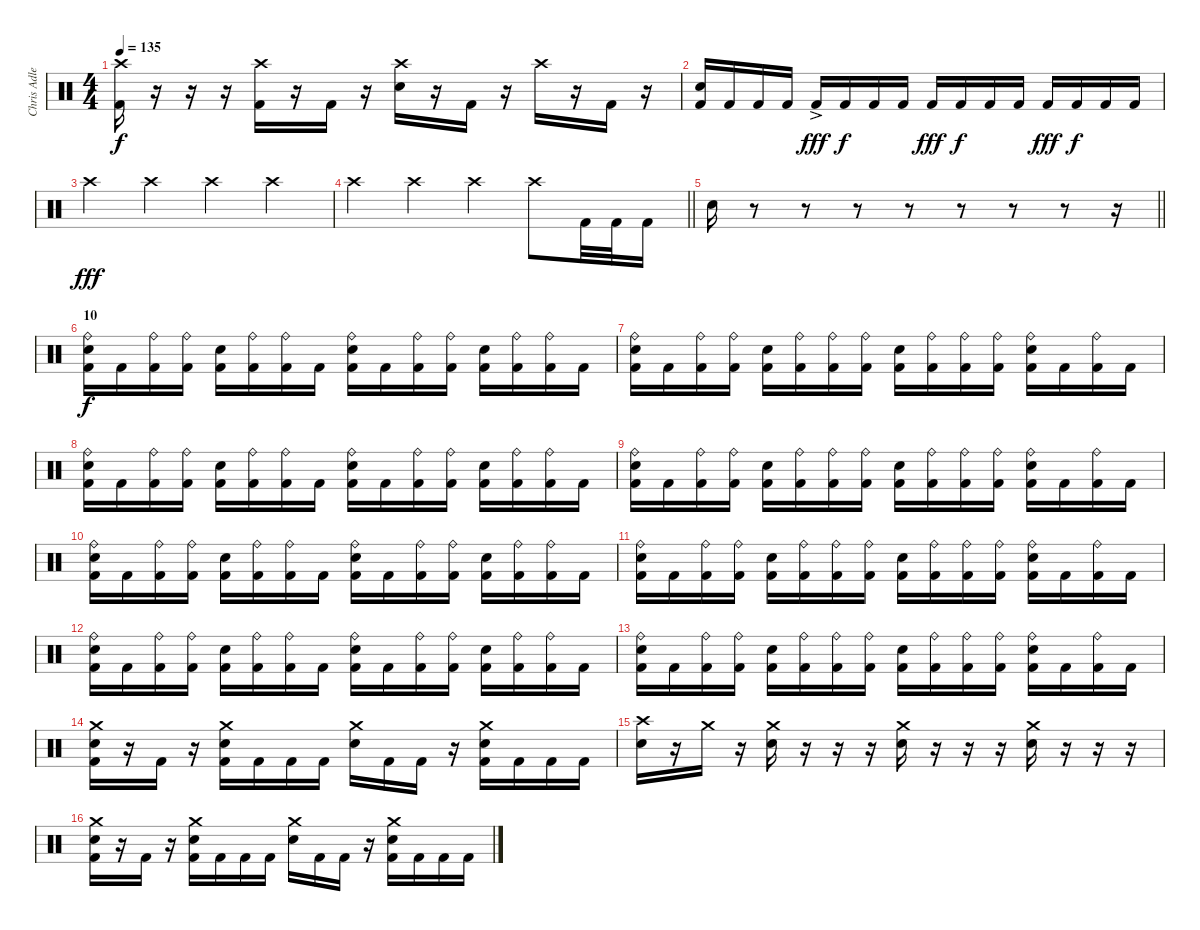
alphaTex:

\track ("Chris Adler" "Chris Adle") {instrument percussion}
\staff {score}
\articulation defaults
\ts (4 4)
\tempo 135
\clef neutral
\ks c
("Crash high (hit)" "Kick (hit) 2").16{dy f} r.16 r.16 r.16 ("Crash high (hit)" "Kick (hit) 2").16 r.16 "Kick (hit) 2".16 r.16 ("Crash high (hit)" "Electric Snare (hit)").16 r.16 "Kick (hit) 2".16 r.16 "Crash high (hit)".16 r.16 "Kick (hit) 2".16 r.16 |
("Electric Snare (hit)" "Kick (hit) 2").16 "Kick (hit) 2".16 "Kick (hit) 2".16 "Kick (hit) 2".16 "Kick (hit) 2"{ac}.16{dy fff} "Kick (hit) 2".16{dy f} "Kick (hit) 2".16 "Kick (hit) 2".16 "Kick (hit) 2".16{dy fff} "Kick (hit) 2".16{dy f} "Kick (hit) 2".16 "Kick (hit) 2".16 "Kick (hit) 2".16{dy fff} "Kick (hit) 2".16{dy f} "Kick (hit) 2".16 "Kick (hit) 2".16 |
"Crash high (hit)".4{dy fff} "Crash high (hit)".4 "Crash high (hit)".4 "Crash high (hit)".4 |
\barLineRight lightlight "Crash high (hit)".4 "Crash high (hit)".4 "Crash high (hit)".4 "Crash high (hit)".8 "Kick (hit) 2".32 "Kick (hit) 2".32 "Kick (hit) 2".16
|
\barLineRight lightlight "Electric Snare (hit)".16
r.8 r.8 r.8 r.8 r.8 r.8 r.8 r.16 |
\section ("" "10")
("Ride (bell)" "Electric Snare (hit)" "Kick (hit) 2").16{dy f} "Kick (hit) 2".16 ("Ride (bell)" "Kick (hit) 2").16 ("Ride (bell)" "Kick (hit) 2").16 ("Electric Snare (hit)" "Kick (hit) 2").16 ("Ride (bell)" "Kick (hit) 2").16 ("Ride (bell)" "Kick (hit) 2").16 "Kick (hit) 2".16 ("Ride (bell)" "Electric Snare (hit)" "Kick (hit) 2").16 "Kick (hit) 2".16 ("Ride (bell)" "Kick (hit) 2").16 ("Ride (bell)" "Kick (hit) 2").16 ("Electric Snare (hit)" "Kick (hit) 2").16 ("Ride (bell)" "Kick (hit) 2").16 ("Ride (bell)" "Kick (hit) 2").16 "Kick (hit) 2".16 |
("Ride (bell)" "Electric Snare (hit)" "Kick (hit) 2").16 "Kick (hit) 2".16 ("Ride (bell)" "Kick (hit) 2").16 ("Ride (bell)" "Kick (hit) 2").16 ("Electric Snare (hit)" "Kick (hit) 2").16 ("Ride (bell)" "Kick (hit) 2").16 ("Ride (bell)" "Kick (hit) 2").16 ("Ride (bell)" "Kick (hit) 2").16 ("Electric Snare (hit)" "Kick (hit) 2").16 ("Ride (bell)" "Kick (hit) 2").16 ("Ride (bell)" "Kick (hit) 2").16 ("Ride (bell)" "Kick (hit) 2").16 ("Ride (bell)" "Electric Snare (hit)" "Kick (hit) 2").16 "Kick (hit) 2".16 ("Ride (bell)" "Kick (hit) 2").16 "Kick (hit) 2".16 |
("Ride (bell)" "Electric Snare (hit)" "Kick (hit) 2").16 "Kick (hit) 2".16 ("Ride (bell)" "Kick (hit) 2").16 ("Ride (bell)" "Kick (hit) 2").16 ("Electric Snare (hit)" "Kick (hit) 2").16 ("Ride (bell)" "Kick (hit) 2").16 ("Ride (bell)" "Kick (hit) 2").16 "Kick (hit) 2".16 ("Ride (bell)" "Electric Snare (hit)" "Kick (hit) 2").16 "Kick (hit) 2".16 ("Ride (bell)" "Kick (hit) 2").16 ("Ride (bell)" "Kick (hit) 2").16 ("Electric Snare (hit)" "Kick (hit) 2").16 ("Ride (bell)" "Kick (hit) 2").16 ("Ride (bell)" "Kick (hit) 2").16 "Kick (hit) 2".16 |
("Ride (bell)" "Electric Snare (hit)" "Kick (hit) 2").16 "Kick (hit) 2".16 ("Ride (bell)" "Kick (hit) 2").16 ("Ride (bell)" "Kick (hit) 2").16 ("Electric Snare (hit)" "Kick (hit) 2").16 ("Ride (bell)" "Kick (hit) 2").16 ("Ride (bell)" "Kick (hit) 2").16 ("Ride (bell)" "Kick (hit) 2").16 ("Electric Snare (hit)" "Kick (hit) 2").16 ("Ride (bell)" "Kick (hit) 2").16 ("Ride (bell)" "Kick (hit) 2").16 ("Ride (bell)" "Kick (hit) 2").16 ("Ride (bell)" "Electric Snare (hit)" "Kick (hit) 2").16 "Kick (hit) 2".16 ("Ride (bell)" "Kick (hit) 2").16 "Kick (hit) 2".16 |
("Ride (bell)" "Electric Snare (hit)" "Kick (hit) 2").16 "Kick (hit) 2".16 ("Ride (bell)" "Kick (hit) 2").16 ("Ride (bell)" "Kick (hit) 2").16 ("Electric Snare (hit)" "Kick (hit) 2").16 ("Ride (bell)" "Kick (hit) 2").16 ("Ride (bell)" "Kick (hit) 2").16 "Kick (hit) 2".16 ("Ride (bell)" "Electric Snare (hit)" "Kick (hit) 2").16 "Kick (hit) 2".16 ("Ride (bell)" "Kick (hit) 2").16 ("Ride (bell)" "Kick (hit) 2").16 ("Electric Snare (hit)" "Kick (hit) 2").16 ("Ride (bell)" "Kick (hit) 2").16 ("Ride (bell)" "Kick (hit) 2").16 "Kick (hit) 2".16 |
("Ride (bell)" "Electric Snare (hit)" "Kick (hit) 2").16 "Kick (hit) 2".16 ("Ride (bell)" "Kick (hit) 2").16 ("Ride (bell)" "Kick (hit) 2").16 ("Electric Snare (hit)" "Kick (hit) 2").16 ("Ride (bell)" "Kick (hit) 2").16 ("Ride (bell)" "Kick (hit) 2").16 ("Ride (bell)" "Kick (hit) 2").16 ("Electric Snare (hit)" "Kick (hit) 2").16 ("Ride (bell)" "Kick (hit) 2").16 ("Ride (bell)" "Kick (hit) 2").16 ("Ride (bell)" "Kick (hit) 2").16 ("Ride (bell)" "Electric Snare (hit)" "Kick (hit) 2").16 "Kick (hit) 2".16 ("Ride (bell)" "Kick (hit) 2").16 "Kick (hit) 2".16 |
("Ride (bell)" "Electric Snare (hit)" "Kick (hit) 2").16 "Kick (hit) 2".16 ("Ride (bell)" "Kick (hit) 2").16 ("Ride (bell)" "Kick (hit) 2").16 ("Electric Snare (hit)" "Kick (hit) 2").16 ("Ride (bell)" "Kick (hit) 2").16 ("Ride (bell)" "Kick (hit) 2").16 "Kick (hit) 2".16 ("Ride (bell)" "Electric Snare (hit)" "Kick (hit) 2").16 "Kick (hit) 2".16 ("Ride (bell)" "Kick (hit) 2").16 ("Ride (bell)" "Kick (hit) 2").16 ("Electric Snare (hit)" "Kick (hit) 2").16 ("Ride (bell)" "Kick (hit) 2").16 ("Ride (bell)" "Kick (hit) 2").16 "Kick (hit) 2".16 |
("Ride (bell)" "Electric Snare (hit)" "Kick (hit) 2").16 "Kick (hit) 2".16 ("Ride (bell)" "Kick (hit) 2").16 ("Ride (bell)" "Kick (hit) 2").16 ("Electric Snare (hit)" "Kick (hit) 2").16 ("Ride (bell)" "Kick (hit) 2").16 ("Ride (bell)" "Kick (hit) 2").16 ("Ride (bell)" "Kick (hit) 2").16 ("Electric Snare (hit)" "Kick (hit) 2").16 ("Ride (bell)" "Kick (hit) 2").16 ("Ride (bell)" "Kick (hit) 2").16 ("Ride (bell)" "Kick (hit) 2").16 ("Ride (bell)" "Electric Snare (hit)" "Kick (hit) 2").16 "Kick (hit) 2".16 ("Ride (bell)" "Kick (hit) 2").16 "Kick (hit) 2".16 |
("Crash medium (hit)" "Electric Snare (hit)" "Kick (hit) 2").16 r.16 "Kick (hit) 2".16 r.16 ("Crash medium (hit)" "Electric Snare (hit)" "Kick (hit) 2").16 "Kick (hit) 2".16 "Kick (hit) 2".16 "Kick (hit) 2".16 ("Crash medium (hit)" "Electric Snare (hit)").16 "Kick (hit) 2".16 "Kick (hit) 2".16 r.16 ("Crash medium (hit)" "Electric Snare (hit)" "Kick (hit) 2").16 "Kick (hit) 2".16 "Kick (hit) 2".16 "Kick (hit) 2".16 |
("Crash high (hit)" "Electric Snare (hit)").16 r.16 "Crash medium (hit)".16 r.16 ("Crash medium (hit)" "Electric Snare (hit)").16 r.16 r.16 r.16 ("Crash medium (hit)" "Electric Snare (hit)").16 r.16 r.16 r.16 ("Crash medium (hit)" "Electric Snare (hit)").16 r.16 r.16 r.16 |
("Crash medium (hit)" "Electric Snare (hit)" "Kick (hit) 2").16 r.16 "Kick (hit) 2".16 r.16 ("Crash medium (hit)" "Electric Snare (hit)" "Kick (hit) 2").16 "Kick (hit) 2".16 "Kick (hit) 2".16 "Kick (hit) 2".16 ("Crash medium (hit)" "Electric Snare (hit)").16 "Kick (hit) 2".16 "Kick (hit) 2".16 r.16 ("Crash medium (hit)" "Electric Snare (hit)" "Kick (hit) 2").16 "Kick (hit) 2".16 "Kick (hit) 2".16 "Kick (hit) 2".16
